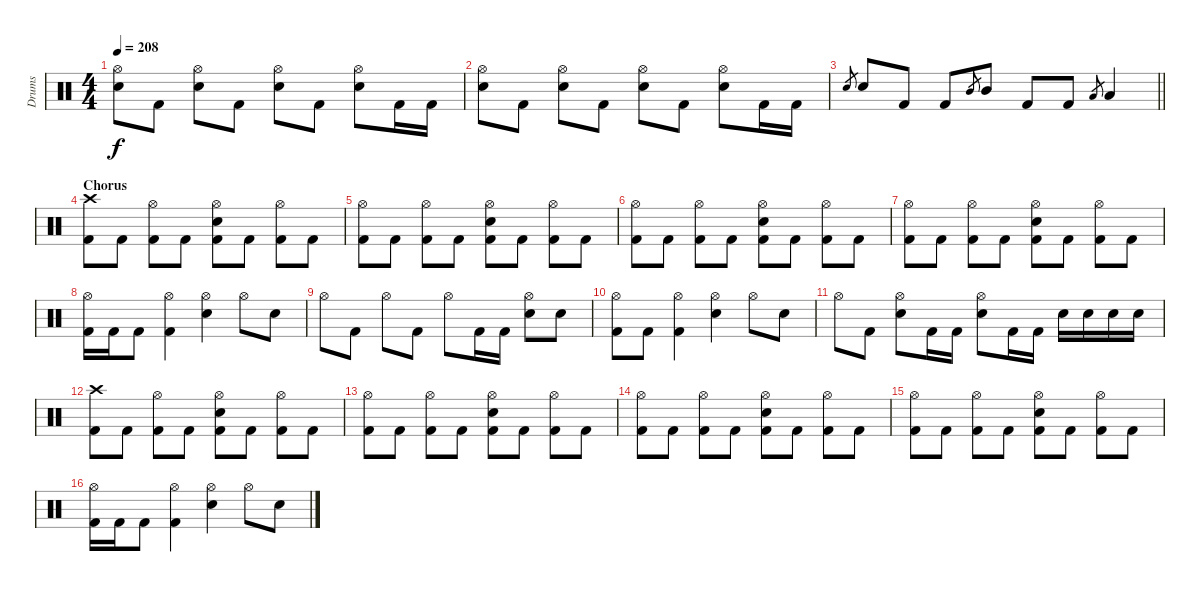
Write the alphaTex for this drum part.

\track ("Drums" "Drums") {instrument percussion}
\staff {score}
\articulation defaults
\ts (4 4)
\tempo 208
\clef neutral
\ks c
("Hi-Hat (open)" "Snare (hit) 2").8{dy f} "Kick (hit) 2".8 ("Hi-Hat (open)" "Snare (hit) 2").8 "Kick (hit) 2".8 ("Hi-Hat (open)" "Snare (hit) 2").8 "Kick (hit) 2".8 ("Hi-Hat (open)" "Snare (hit) 2").8 "Kick (hit) 2".16 "Kick (hit) 2".16 |
("Hi-Hat (open)" "Snare (hit) 2").8 "Kick (hit) 2".8 ("Hi-Hat (open)" "Snare (hit) 2").8 "Kick (hit) 2".8 ("Hi-Hat (open)" "Snare (hit) 2").8 "Kick (hit) 2".8 ("Hi-Hat (open)" "Snare (hit) 2").8 "Kick (hit) 2".16 "Kick (hit) 2".16 |
\barLineRight lightlight "Snare (hit) 2".8{gr} "Snare (hit) 2".8 "Kick (hit) 2".8 "Kick (hit) 2".8 "Mid Tom (hit)".8{gr} "Mid Tom (hit)".8 "Kick (hit) 2".8 "Kick (hit) 2".8 "Low Tom (hit)".8{gr} "Low Tom (hit)".4
|
\section ("" "Chorus")
("Crash high (hit)" "Kick (hit) 2").8 "Kick (hit) 2".8 ("Hi-Hat (open)" "Kick (hit) 2").8 "Kick (hit) 2".8 ("Hi-Hat (open)" "Snare (hit) 2" "Kick (hit) 2").8 "Kick (hit) 2".8 ("Hi-Hat (open)" "Kick (hit) 2").8 "Kick (hit) 2".8 |
("Hi-Hat (open)" "Kick (hit) 2").8 "Kick (hit) 2".8 ("Hi-Hat (open)" "Kick (hit) 2").8 "Kick (hit) 2".8 ("Hi-Hat (open)" "Snare (hit) 2" "Kick (hit) 2").8 "Kick (hit) 2".8 ("Hi-Hat (open)" "Kick (hit) 2").8 "Kick (hit) 2".8 |
("Hi-Hat (open)" "Kick (hit) 2").8 "Kick (hit) 2".8 ("Hi-Hat (open)" "Kick (hit) 2").8 "Kick (hit) 2".8 ("Hi-Hat (open)" "Snare (hit) 2" "Kick (hit) 2").8 "Kick (hit) 2".8 ("Hi-Hat (open)" "Kick (hit) 2").8 "Kick (hit) 2".8 |
("Hi-Hat (open)" "Kick (hit) 2").8 "Kick (hit) 2".8 ("Hi-Hat (open)" "Kick (hit) 2").8 "Kick (hit) 2".8 ("Hi-Hat (open)" "Snare (hit) 2" "Kick (hit) 2").8 "Kick (hit) 2".8 ("Hi-Hat (open)" "Kick (hit) 2").8 "Kick (hit) 2".8 |
("Hi-Hat (open)" "Kick (hit) 2").16 "Kick (hit) 2".16 "Kick (hit) 2".8 ("Hi-Hat (open)" "Kick (hit) 2").4 ("Hi-Hat (open)" "Snare (hit) 2").4 "Hi-Hat (open)".8 "Snare (hit) 2".8 |
"Hi-Hat (open)".8 "Kick (hit) 2".8 "Hi-Hat (open)".8 "Kick (hit) 2".8 "Hi-Hat (open)".8 "Kick (hit) 2".16 "Kick (hit) 2".16 ("Hi-Hat (open)" "Snare (hit) 2").8 "Snare (hit) 2".8 |
("Hi-Hat (open)" "Kick (hit) 2").8 "Kick (hit) 2".8 ("Hi-Hat (open)" "Kick (hit) 2").4 ("Hi-Hat (open)" "Snare (hit) 2").4 "Hi-Hat (open)".8 "Snare (hit) 2".8 |
"Hi-Hat (open)".8 "Kick (hit) 2".8 ("Hi-Hat (open)" "Snare (hit) 2").8 "Kick (hit) 2".16 "Kick (hit) 2".16 ("Hi-Hat (open)" "Snare (hit) 2").8 "Kick (hit) 2".16 "Kick (hit) 2".16 "Snare (hit) 2".16 "Snare (hit) 2".16 "Snare (hit) 2".16 "Snare (hit) 2".16 |
("Crash high (hit)" "Kick (hit) 2").8 "Kick (hit) 2".8 ("Hi-Hat (open)" "Kick (hit) 2").8 "Kick (hit) 2".8 ("Hi-Hat (open)" "Snare (hit) 2" "Kick (hit) 2").8 "Kick (hit) 2".8 ("Hi-Hat (open)" "Kick (hit) 2").8 "Kick (hit) 2".8 |
("Hi-Hat (open)" "Kick (hit) 2").8 "Kick (hit) 2".8 ("Hi-Hat (open)" "Kick (hit) 2").8 "Kick (hit) 2".8 ("Hi-Hat (open)" "Snare (hit) 2" "Kick (hit) 2").8 "Kick (hit) 2".8 ("Hi-Hat (open)" "Kick (hit) 2").8 "Kick (hit) 2".8 |
("Hi-Hat (open)" "Kick (hit) 2").8 "Kick (hit) 2".8 ("Hi-Hat (open)" "Kick (hit) 2").8 "Kick (hit) 2".8 ("Hi-Hat (open)" "Snare (hit) 2" "Kick (hit) 2").8 "Kick (hit) 2".8 ("Hi-Hat (open)" "Kick (hit) 2").8 "Kick (hit) 2".8 |
("Hi-Hat (open)" "Kick (hit) 2").8 "Kick (hit) 2".8 ("Hi-Hat (open)" "Kick (hit) 2").8 "Kick (hit) 2".8 ("Hi-Hat (open)" "Snare (hit) 2" "Kick (hit) 2").8 "Kick (hit) 2".8 ("Hi-Hat (open)" "Kick (hit) 2").8 "Kick (hit) 2".8 |
("Hi-Hat (open)" "Kick (hit) 2").16 "Kick (hit) 2".16 "Kick (hit) 2".8 ("Hi-Hat (open)" "Kick (hit) 2").4 ("Hi-Hat (open)" "Snare (hit) 2").4 "Hi-Hat (open)".8 "Snare (hit) 2".8
